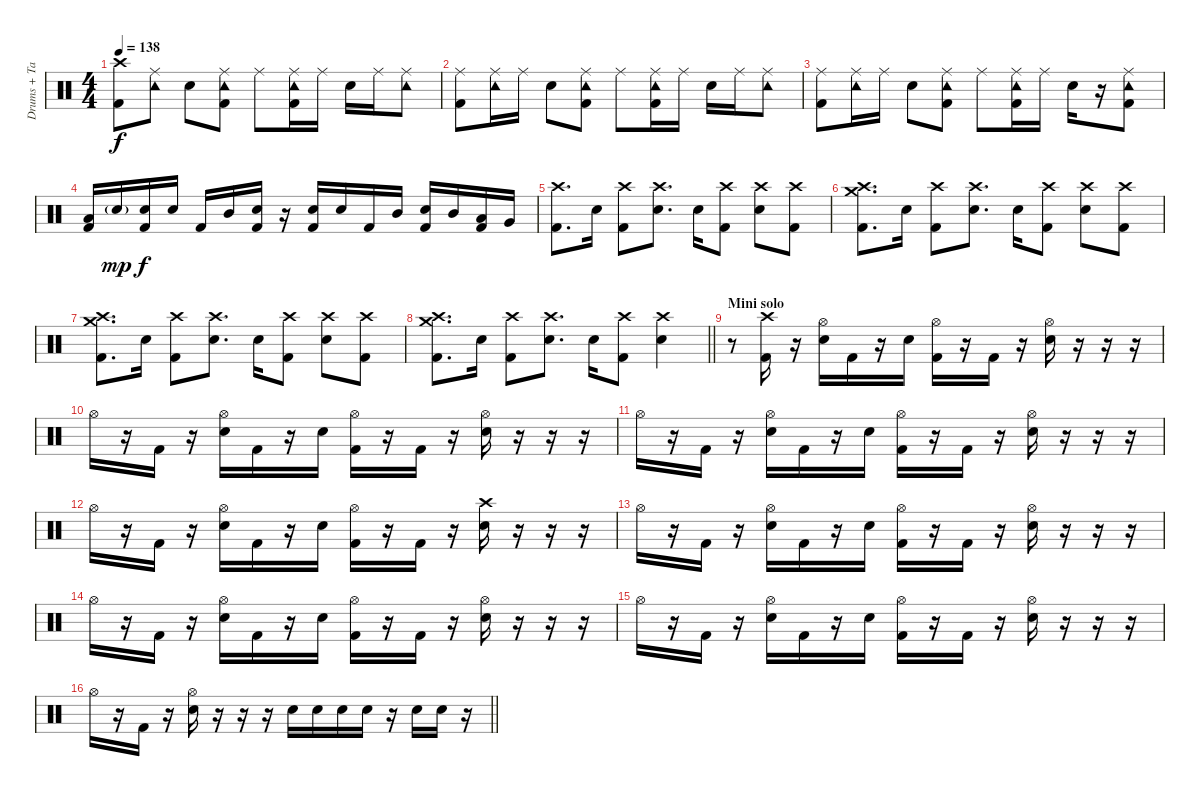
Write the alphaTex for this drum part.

\track ("Drums + Tambourine" "Drums + Ta") {instrument percussion}
\staff {score}
\articulation defaults
\ts (4 4)
\tempo 138
\clef neutral
\ks c
("Crash high (hit)" "Kick (hit) 2").8{dy f} ("Tambourine (hit)" "Ride (middle)").8 "Electric Snare (hit)".8 ("Tambourine (hit)" "Ride (middle)" "Kick (hit) 2").8 "Ride (middle)".8 ("Tambourine (hit)" "Ride (middle)" "Kick (hit) 2").16 "Ride (middle)".16 "Electric Snare (hit)".16 "Ride (middle)".16 ("Tambourine (hit)" "Ride (middle)").8 |
("Ride (middle)" "Kick (hit) 2").8 ("Tambourine (hit)" "Ride (middle)").16 "Ride (middle)".16 "Electric Snare (hit)".8 ("Tambourine (hit)" "Ride (middle)" "Kick (hit) 2").8 "Ride (middle)".8 ("Tambourine (hit)" "Ride (middle)" "Kick (hit) 2").16 "Ride (middle)".16 "Electric Snare (hit)".16 "Ride (middle)".16 ("Tambourine (hit)" "Ride (middle)").8 |
("Ride (middle)" "Kick (hit) 2").8 ("Tambourine (hit)" "Ride (middle)").16 "Ride (middle)".16 "Electric Snare (hit)".8 ("Tambourine (hit)" "Ride (middle)" "Kick (hit) 2").8 "Ride (middle)".8 ("Tambourine (hit)" "Ride (middle)" "Kick (hit) 2").16 "Ride (middle)".16 "Electric Snare (hit)".16 r.16 ("Tambourine (hit)" "Ride (middle)" "Kick (hit) 2").8 |
("Low Floor Tom (hit)" "Kick (hit) 2").16 "Electric Snare (hit)"{g}.16{dy mp} ("Electric Snare (hit)" "Kick (hit) 2").16{dy f} "Electric Snare (hit)".16 "Kick (hit) 2".16 "Mid Tom (hit)".16 ("Electric Snare (hit)" "Kick (hit) 2").16 r.16 ("Electric Snare (hit)" "Kick (hit) 2").16 "Electric Snare (hit)".16 "Kick (hit) 2".16 "Mid Tom (hit)".16 ("Electric Snare (hit)" "Kick (hit) 2").16 "Mid Tom (hit)".16 ("Low Tom (hit)" "Kick (hit) 2").16 "Very Low Tom (hit)".16 |
("Crash high (hit)" "Kick (hit) 2").8{d} "Electric Snare (hit)".16 ("Crash high (hit)" "Kick (hit) 2").8 ("Crash high (hit)" "Electric Snare (hit)").8{d} "Electric Snare (hit)".16 ("Crash high (hit)" "Kick (hit) 2").8 ("Crash high (hit)" "Electric Snare (hit)").8 ("Crash high (hit)" "Kick (hit) 2").8 |
("Crash high (hit)" "Crash medium (hit)" "Kick (hit) 2").8{d} "Electric Snare (hit)".16 ("Crash high (hit)" "Kick (hit) 2").8 ("Crash high (hit)" "Electric Snare (hit)").8{d} "Electric Snare (hit)".16 ("Crash high (hit)" "Kick (hit) 2").8 ("Crash high (hit)" "Electric Snare (hit)").8 ("Crash high (hit)" "Kick (hit) 2").8 |
("Crash high (hit)" "Crash medium (hit)" "Kick (hit) 2").8{d} "Electric Snare (hit)".16 ("Crash high (hit)" "Kick (hit) 2").8 ("Crash high (hit)" "Electric Snare (hit)").8{d} "Electric Snare (hit)".16 ("Crash high (hit)" "Kick (hit) 2").8 ("Crash high (hit)" "Electric Snare (hit)").8 ("Crash high (hit)" "Kick (hit) 2").8 |
\barLineRight lightlight
("Crash high (hit)" "Crash medium (hit)" "Kick (hit) 2").8{d} "Electric Snare (hit)".16 ("Crash high (hit)" "Kick (hit) 2").8 ("Crash high (hit)" "Electric Snare (hit)").8{d} "Electric Snare (hit)".16 ("Crash high (hit)" "Kick (hit) 2").8 ("Crash high (hit)" "Electric Snare (hit)").4 |
\section ("" "Mini solo")
r.8 ("Crash high (hit)" "Kick (hit) 2").16 r.16 ("Hi-Hat (open)" "Electric Snare (hit)").16 "Kick (hit) 2".16 r.16 "Electric Snare (hit)".16 ("Hi-Hat (open)" "Kick (hit) 2").16 r.16 "Kick (hit) 2".16 r.16 ("Hi-Hat (open)" "Electric Snare (hit)").16 r.16 r.16 r.16 |
"Hi-Hat (open)".16 r.16 "Kick (hit) 2".16 r.16 ("Hi-Hat (open)" "Electric Snare (hit)").16 "Kick (hit) 2".16 r.16 "Electric Snare (hit)".16 ("Hi-Hat (open)" "Kick (hit) 2").16 r.16 "Kick (hit) 2".16 r.16 ("Hi-Hat (open)" "Electric Snare (hit)").16 r.16 r.16 r.16 |
"Hi-Hat (open)".16 r.16 "Kick (hit) 2".16 r.16 ("Hi-Hat (open)" "Electric Snare (hit)").16 "Kick (hit) 2".16 r.16 "Electric Snare (hit)".16 ("Hi-Hat (open)" "Kick (hit) 2").16 r.16 "Kick (hit) 2".16 r.16 ("Hi-Hat (open)" "Electric Snare (hit)").16 r.16 r.16 r.16 |
"Hi-Hat (open)".16 r.16 "Kick (hit) 2".16 r.16 ("Hi-Hat (open)" "Electric Snare (hit)").16 "Kick (hit) 2".16 r.16 "Electric Snare (hit)".16 ("Hi-Hat (open)" "Kick (hit) 2").16 r.16 "Kick (hit) 2".16 r.16 ("Crash high (hit)" "Electric Snare (hit)").16 r.16 r.16 r.16 |
"Hi-Hat (open)".16 r.16 "Kick (hit) 2".16 r.16 ("Hi-Hat (open)" "Electric Snare (hit)").16 "Kick (hit) 2".16 r.16 "Electric Snare (hit)".16 ("Hi-Hat (open)" "Kick (hit) 2").16 r.16 "Kick (hit) 2".16 r.16 ("Hi-Hat (open)" "Electric Snare (hit)").16 r.16 r.16 r.16 |
"Hi-Hat (open)".16 r.16 "Kick (hit) 2".16 r.16 ("Hi-Hat (open)" "Electric Snare (hit)").16 "Kick (hit) 2".16 r.16 "Electric Snare (hit)".16 ("Hi-Hat (open)" "Kick (hit) 2").16 r.16 "Kick (hit) 2".16 r.16 ("Hi-Hat (open)" "Electric Snare (hit)").16 r.16 r.16 r.16 |
"Hi-Hat (open)".16 r.16 "Kick (hit) 2".16 r.16 ("Hi-Hat (open)" "Electric Snare (hit)").16 "Kick (hit) 2".16 r.16 "Electric Snare (hit)".16 ("Hi-Hat (open)" "Kick (hit) 2").16 r.16 "Kick (hit) 2".16 r.16 ("Hi-Hat (open)" "Electric Snare (hit)").16 r.16 r.16 r.16 |
\barLineRight lightlight "Hi-Hat (open)".16
r.16 "Kick (hit) 2".16 r.16 ("Hi-Hat (open)" "Electric Snare (hit)").16 r.16 r.16 r.16 "Electric Snare (hit)".16 "Electric Snare (hit)".16 "Electric Snare (hit)".16 "Electric Snare (hit)".16 r.16 "Electric Snare (hit)".16 "Electric Snare (hit)".16 r.16
